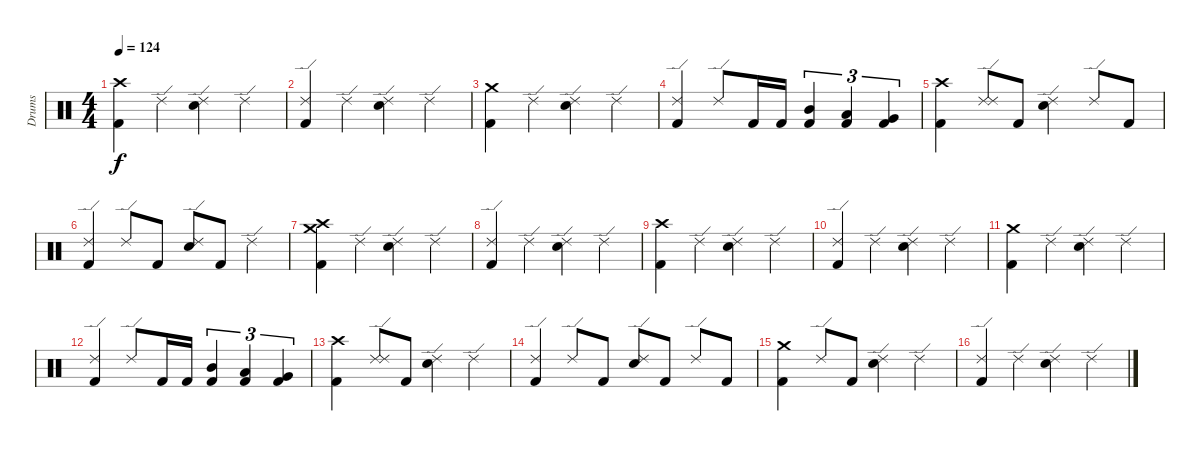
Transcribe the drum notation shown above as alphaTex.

\track ("Drums" "Drums") {instrument percussion}
\staff {score}
\articulation defaults
\ts (4 4)
\tempo 124
\clef neutral
\ks c
("Kick (hit) 2" "Crash high (hit)").4{dy f} "Ride (edge) 2".4 ("Electric Snare (hit)" "Ride (edge) 2").4 "Ride (edge) 2".4 |
("Kick (hit) 2" "Ride (edge) 2").4 "Ride (edge) 2".4 ("Electric Snare (hit)" "Ride (edge) 2").4 "Ride (edge) 2".4 |
("Kick (hit) 2" "Crash medium (hit)").4 "Ride (edge) 2".4 ("Electric Snare (hit)" "Ride (edge) 2").4 "Ride (edge) 2".4 |
("Kick (hit) 2" "Ride (edge) 2").4 "Ride (edge) 2".8 "Kick (hit) 2".16 "Kick (hit) 2".16 ("Kick (hit) 2" "Mid Tom (hit)").4{tu (3 2)} ("Kick (hit) 2" "Low Tom (hit)").4{tu (3 2)} ("Kick (hit) 2" "Very Low Tom (hit)").4{tu (3 2)} |
("Kick (hit) 2" "Crash high (hit)").4 ("Ride (edge) 2" "Ride (edge) 2").8 "Kick (hit) 2".8 ("Electric Snare (hit)" "Ride (edge) 2").4 "Ride (edge) 2".8 "Kick (hit) 2".8 |
("Kick (hit) 2" "Ride (edge) 2").4 "Ride (edge) 2".8 "Kick (hit) 2".8 ("Electric Snare (hit)" "Ride (edge) 2").8 "Kick (hit) 2".8 "Ride (edge) 2".4 |
\section ("" "")
("Kick (hit) 2" "Crash medium (hit)" "Crash high (hit)").4 "Ride (edge) 2".4 ("Electric Snare (hit)" "Ride (edge) 2").4 "Ride (edge) 2".4 |
("Kick (hit) 2" "Ride (edge) 2").4 "Ride (edge) 2".4 ("Electric Snare (hit)" "Ride (edge) 2").4 "Ride (edge) 2".4 |
("Kick (hit) 2" "Crash high (hit)").4 "Ride (edge) 2".4 ("Electric Snare (hit)" "Ride (edge) 2").4 "Ride (edge) 2".4 |
("Kick (hit) 2" "Ride (edge) 2").4 "Ride (edge) 2".4 ("Electric Snare (hit)" "Ride (edge) 2").4 "Ride (edge) 2".4 |
("Kick (hit) 2" "Crash medium (hit)").4 "Ride (edge) 2".4 ("Electric Snare (hit)" "Ride (edge) 2").4 "Ride (edge) 2".4 |
("Kick (hit) 2" "Ride (edge) 2").4 "Ride (edge) 2".8 "Kick (hit) 2".16 "Kick (hit) 2".16 ("Kick (hit) 2" "Mid Tom (hit)").4{tu (3 2)} ("Kick (hit) 2" "Low Tom (hit)").4{tu (3 2)} ("Kick (hit) 2" "Very Low Tom (hit)").4{tu (3 2)} |
("Kick (hit) 2" "Crash high (hit)").4 ("Ride (edge) 2" "Ride (edge) 2").8 "Kick (hit) 2".8 ("Electric Snare (hit)" "Ride (edge) 2").4 "Ride (edge) 2".4 |
("Kick (hit) 2" "Ride (edge) 2").4 "Ride (edge) 2".8 "Kick (hit) 2".8 ("Electric Snare (hit)" "Ride (edge) 2").8 "Kick (hit) 2".8 "Ride (edge) 2".8 "Kick (hit) 2".8 |
\section ("" "")
("Kick (hit) 2" "Crash medium (hit)").4 "Ride (edge) 2".8 "Kick (hit) 2".8 ("Electric Snare (hit)" "Ride (edge) 2").4 "Ride (edge) 2".4 |
("Kick (hit) 2" "Ride (edge) 2").4 "Ride (edge) 2".4 ("Electric Snare (hit)" "Ride (edge) 2").4 "Ride (edge) 2".4
